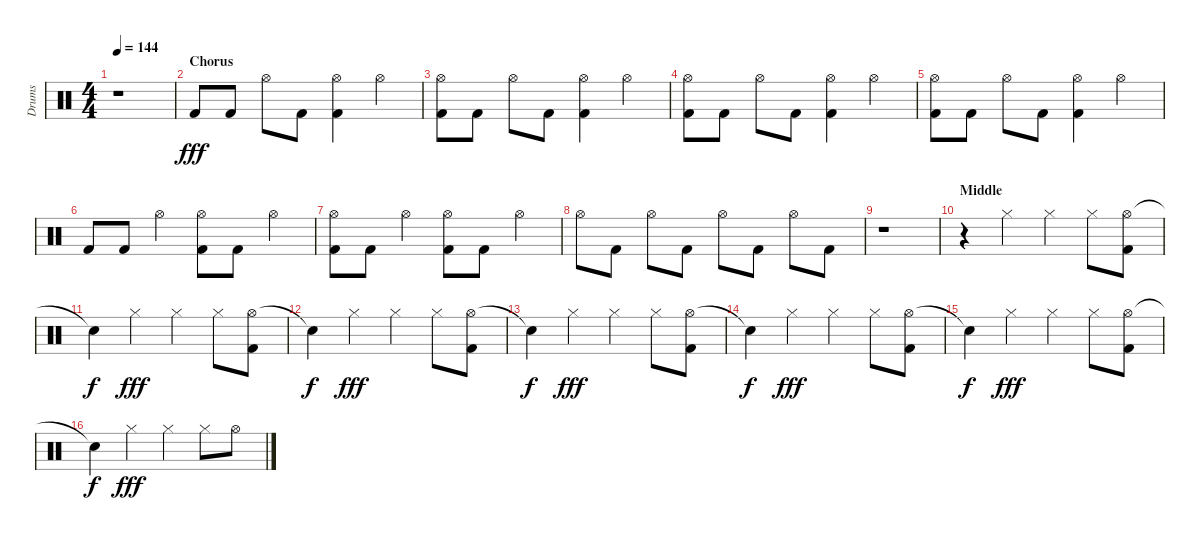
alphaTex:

\track ("Drums" "Drums") {instrument percussion}
\staff {score}
\articulation defaults
\ts (4 4)
\tempo 144
\clef neutral
\ks c
r.1{dy fff} |
\section ("" "Chorus")
"Kick (hit) 2".8 "Kick (hit) 2".8 "Hi-Hat (open)".8 "Kick (hit) 2".8 ("Hi-Hat (open)" "Kick (hit) 2").4 "Hi-Hat (open)".4 |
("Hi-Hat (open)" "Kick (hit) 2").8 "Kick (hit) 2".8 "Hi-Hat (open)".8 "Kick (hit) 2".8 ("Hi-Hat (open)" "Kick (hit) 2").4 "Hi-Hat (open)".4 |
("Hi-Hat (open)" "Kick (hit) 2").8 "Kick (hit) 2".8 "Hi-Hat (open)".8 "Kick (hit) 2".8 ("Hi-Hat (open)" "Kick (hit) 2").4 "Hi-Hat (open)".4 |
("Hi-Hat (open)" "Kick (hit) 2").8 "Kick (hit) 2".8 "Hi-Hat (open)".8 "Kick (hit) 2".8 ("Hi-Hat (open)" "Kick (hit) 2").4 "Hi-Hat (open)".4 |
"Kick (hit) 2".8 "Kick (hit) 2".8 "Hi-Hat (open)".4 ("Hi-Hat (open)" "Kick (hit) 2").8 "Kick (hit) 2".8 "Hi-Hat (open)".4 |
("Hi-Hat (open)" "Kick (hit) 2").8 "Kick (hit) 2".8 "Hi-Hat (open)".4 ("Hi-Hat (open)" "Kick (hit) 2").8 "Kick (hit) 2".8 "Hi-Hat (open)".4 |
"Hi-Hat (open)".8 "Kick (hit) 2".8 "Hi-Hat (open)".8 "Kick (hit) 2".8 "Hi-Hat (open)".8 "Kick (hit) 2".8 "Hi-Hat (open)".8 "Kick (hit) 2".8 |
r.1 |
\section ("" "Middle")
r.4 "Hi-Hat (closed)".4 "Hi-Hat (closed)".4 "Hi-Hat (closed)".8 ("Hi-Hat (open)" "Kick (hit) 2").8 |
"Snare (hit)"{t}.4{dy f} "Hi-Hat (closed)".4{dy fff} "Hi-Hat (closed)".4 "Hi-Hat (closed)".8 ("Hi-Hat (open)" "Kick (hit) 2").8 |
"Snare (hit)"{t}.4{dy f} "Hi-Hat (closed)".4{dy fff} "Hi-Hat (closed)".4 "Hi-Hat (closed)".8 ("Hi-Hat (open)" "Kick (hit) 2").8 |
"Snare (hit)"{t}.4{dy f} "Hi-Hat (closed)".4{dy fff} "Hi-Hat (closed)".4 "Hi-Hat (closed)".8 ("Hi-Hat (open)" "Kick (hit) 2").8 |
"Snare (hit)"{t}.4{dy f} "Hi-Hat (closed)".4{dy fff} "Hi-Hat (closed)".4 "Hi-Hat (closed)".8 ("Hi-Hat (open)" "Kick (hit) 2").8 |
"Snare (hit)"{t}.4{dy f} "Hi-Hat (closed)".4{dy fff} "Hi-Hat (closed)".4 "Hi-Hat (closed)".8 ("Hi-Hat (open)" "Kick (hit) 2").8 |
"Snare (hit)"{t}.4{dy f} "Hi-Hat (closed)".4{dy fff} "Hi-Hat (closed)".4 "Hi-Hat (closed)".8 "Hi-Hat (open)".8
